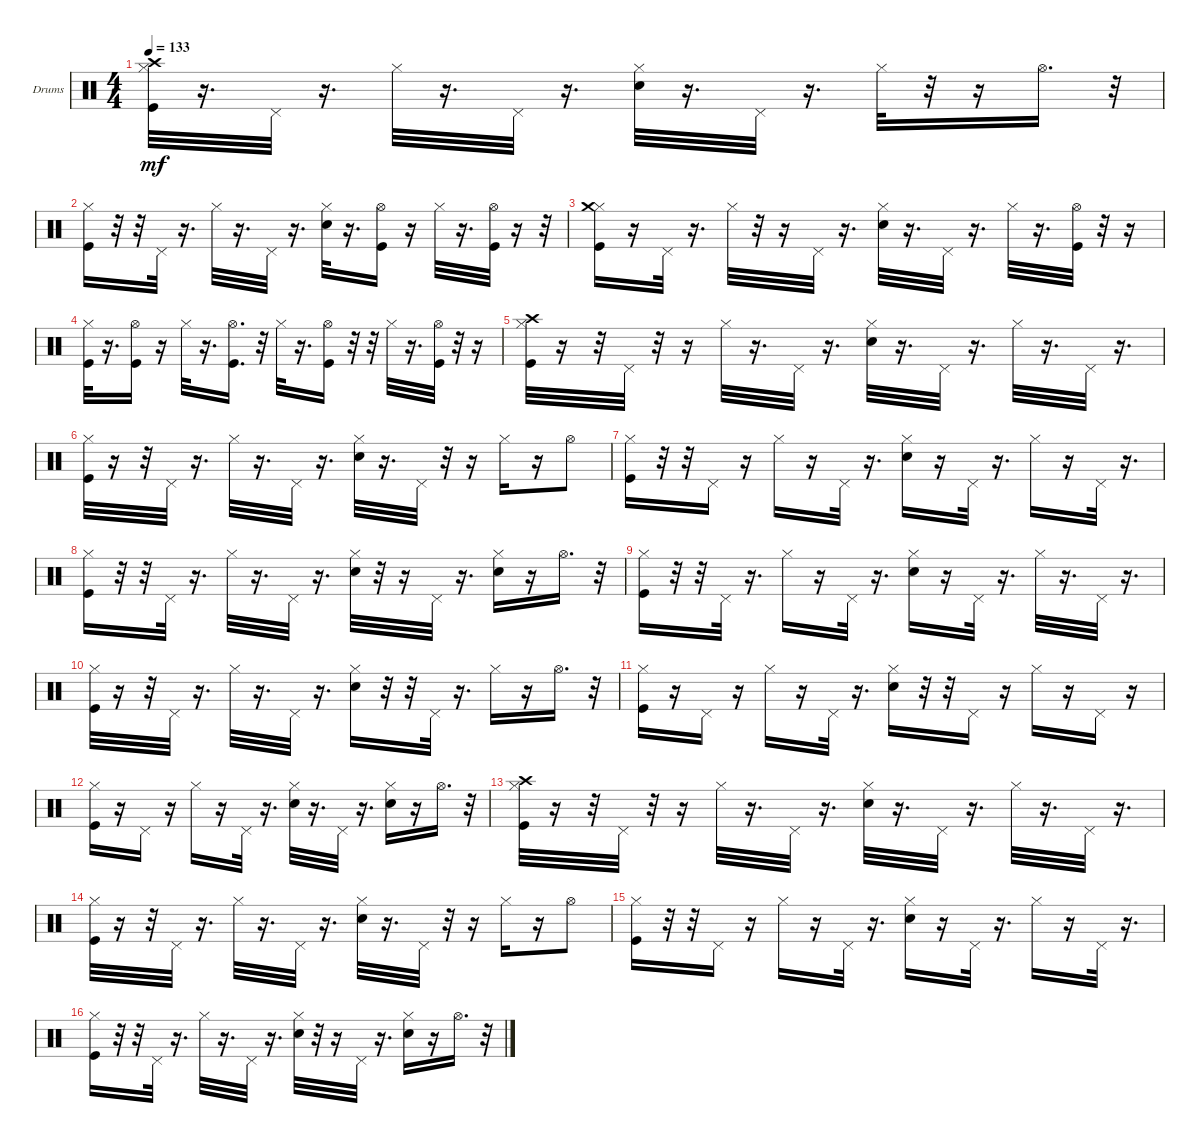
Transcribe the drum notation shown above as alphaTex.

\defaultSystemsLayout 4
\bracketExtendMode groupsimilarinstruments
\firstSystemTrackNameOrientation horizontal
\otherSystemsTrackNameOrientation horizontal
\track ("Drumkit" "Drums") {instrument percussion}
\staff {score}
\articulation defaults
\ts (4 4)
\tempo 133
\clef neutral
\ks c
("Kick (hit)" "Hi-Hat (closed)" "Crash high (hit)").32{dy mf} r.16{d} "Pedal Hi-Hat (hit)".32 r.16{d} "Hi-Hat (closed)".32 r.16{d} "Pedal Hi-Hat (hit)".32 r.16{d} ("Snare (hit) 2" "Hi-Hat (closed)").32 r.16{d} "Pedal Hi-Hat (hit)".32 r.16{d} "Hi-Hat (closed)".32 r.32 r.16 "Hi-Hat (open)".16{d} r.32 |
("Kick (hit)" "Hi-Hat (closed)").16 r.32 r.32 "Pedal Hi-Hat (hit)".32 r.16{d} "Hi-Hat (closed)".32 r.16{d} "Pedal Hi-Hat (hit)".32 r.16{d} ("Snare (hit) 2" "Hi-Hat (closed)").32 r.16{d} ("Kick (hit)" "Hi-Hat (open)").16 r.16 "Hi-Hat (closed)".32 r.16{d} ("Kick (hit)" "Hi-Hat (open)").32 r.16 r.32 |
("Kick (hit)" "Hi-Hat (closed)" "Crash medium (hit)").16 r.16 "Pedal Hi-Hat (hit)".32 r.16{d} "Hi-Hat (closed)".32 r.32 r.16 "Pedal Hi-Hat (hit)".32 r.16{d} ("Snare (hit) 2" "Hi-Hat (closed)").32 r.16{d} "Pedal Hi-Hat (hit)".32 r.16{d} "Hi-Hat (closed)".32 r.16{d} ("Kick (hit)" "Hi-Hat (open)").32 r.32 r.16 |
("Kick (hit)" "Hi-Hat (closed)").32 r.16{d} ("Kick (hit)" "Hi-Hat (open)").16 r.16 "Hi-Hat (closed)".32 r.16{d} ("Kick (hit)" "Hi-Hat (open)").16{d} r.32 "Hi-Hat (closed)".32 r.16{d} ("Kick (hit)" "Hi-Hat (open)").16 r.32 r.32 "Hi-Hat (closed)".32 r.16{d} ("Kick (hit)" "Hi-Hat (open)").32 r.32 r.16 |
("Kick (hit)" "Hi-Hat (closed)" "Crash high (hit)").32 r.16 r.32 "Pedal Hi-Hat (hit)".32 r.32 r.16 "Hi-Hat (closed)".32 r.16{d} "Pedal Hi-Hat (hit)".32 r.16{d} ("Snare (hit) 2" "Hi-Hat (closed)").32 r.16{d} "Pedal Hi-Hat (hit)".32 r.16{d} "Hi-Hat (closed)".32 r.16{d} "Pedal Hi-Hat (hit)".32 r.16{d} |
("Kick (hit)" "Hi-Hat (closed)").32 r.16 r.32 "Pedal Hi-Hat (hit)".32 r.16{d} "Hi-Hat (closed)".32 r.16{d} "Pedal Hi-Hat (hit)".32 r.16{d} ("Snare (hit) 2" "Hi-Hat (closed)").32 r.16{d} "Pedal Hi-Hat (hit)".32 r.32 r.16 "Hi-Hat (closed)".16 r.16 "Hi-Hat (open)".8 |
("Kick (hit)" "Hi-Hat (closed)").16 r.32 r.32 "Pedal Hi-Hat (hit)".16 r.16 "Hi-Hat (closed)".16 r.16 "Pedal Hi-Hat (hit)".32 r.16{d} ("Snare (hit) 2" "Hi-Hat (closed)").16 r.16 "Pedal Hi-Hat (hit)".32 r.16{d} "Hi-Hat (closed)".16 r.16 "Pedal Hi-Hat (hit)".32 r.16{d} |
("Kick (hit)" "Hi-Hat (closed)").16 r.32 r.32 "Pedal Hi-Hat (hit)".32 r.16{d} "Hi-Hat (closed)".32 r.16{d} "Pedal Hi-Hat (hit)".32 r.16{d} ("Snare (hit) 2" "Hi-Hat (closed)").32 r.32 r.16 "Pedal Hi-Hat (hit)".32 r.16{d} ("Snare (hit) 2" "Hi-Hat (closed)").16 r.16 "Hi-Hat (open)".16{d} r.32 |
("Kick (hit)" "Hi-Hat (closed)").16 r.32 r.32 "Pedal Hi-Hat (hit)".32 r.16{d} "Hi-Hat (closed)".16 r.16 "Pedal Hi-Hat (hit)".32 r.16{d} ("Snare (hit) 2" "Hi-Hat (closed)").16 r.16 "Pedal Hi-Hat (hit)".32 r.16{d} "Hi-Hat (closed)".32 r.16{d} "Pedal Hi-Hat (hit)".32 r.16{d} |
("Kick (hit)" "Hi-Hat (closed)").32 r.16 r.32 "Pedal Hi-Hat (hit)".32 r.16{d} "Hi-Hat (closed)".32 r.16{d} "Pedal Hi-Hat (hit)".32 r.16{d} ("Snare (hit) 2" "Hi-Hat (closed)").16 r.32 r.32 "Pedal Hi-Hat (hit)".32 r.16{d} "Hi-Hat (closed)".16 r.16 "Hi-Hat (open)".16{d} r.32 |
("Kick (hit)" "Hi-Hat (closed)").16 r.16 "Pedal Hi-Hat (hit)".16 r.16 "Hi-Hat (closed)".16 r.16 "Pedal Hi-Hat (hit)".32 r.16{d} ("Snare (hit) 2" "Hi-Hat (closed)").16 r.32 r.32 "Pedal Hi-Hat (hit)".16 r.16 "Hi-Hat (closed)".16 r.16 "Pedal Hi-Hat (hit)".16 r.16 |
("Kick (hit)" "Hi-Hat (closed)").16 r.16 "Pedal Hi-Hat (hit)".16 r.16 "Hi-Hat (closed)".16 r.16 "Pedal Hi-Hat (hit)".32 r.16{d} ("Snare (hit) 2" "Hi-Hat (closed)").32 r.16{d} "Pedal Hi-Hat (hit)".32 r.16{d} ("Snare (hit) 2" "Hi-Hat (closed)").16 r.16 "Hi-Hat (open)".16{d} r.32 |
("Kick (hit)" "Hi-Hat (closed)" "Crash high (hit)").32 r.16 r.32 "Pedal Hi-Hat (hit)".32 r.32 r.16 "Hi-Hat (closed)".32 r.16{d} "Pedal Hi-Hat (hit)".32 r.16{d} ("Snare (hit) 2" "Hi-Hat (closed)").32 r.16{d} "Pedal Hi-Hat (hit)".32 r.16{d} "Hi-Hat (closed)".32 r.16{d} "Pedal Hi-Hat (hit)".32 r.16{d} |
("Kick (hit)" "Hi-Hat (closed)").32 r.16 r.32 "Pedal Hi-Hat (hit)".32 r.16{d} "Hi-Hat (closed)".32 r.16{d} "Pedal Hi-Hat (hit)".32 r.16{d} ("Snare (hit) 2" "Hi-Hat (closed)").32 r.16{d} "Pedal Hi-Hat (hit)".32 r.32 r.16 "Hi-Hat (closed)".16 r.16 "Hi-Hat (open)".8 |
("Kick (hit)" "Hi-Hat (closed)").16 r.32 r.32 "Pedal Hi-Hat (hit)".16 r.16 "Hi-Hat (closed)".16 r.16 "Pedal Hi-Hat (hit)".32 r.16{d} ("Snare (hit) 2" "Hi-Hat (closed)").16 r.16 "Pedal Hi-Hat (hit)".32 r.16{d} "Hi-Hat (closed)".16 r.16 "Pedal Hi-Hat (hit)".32 r.16{d} |
("Kick (hit)" "Hi-Hat (closed)").16 r.32 r.32 "Pedal Hi-Hat (hit)".32 r.16{d} "Hi-Hat (closed)".32 r.16{d} "Pedal Hi-Hat (hit)".32 r.16{d} ("Snare (hit) 2" "Hi-Hat (closed)").32 r.32 r.16 "Pedal Hi-Hat (hit)".32 r.16{d} ("Snare (hit) 2" "Hi-Hat (closed)").16 r.16 "Hi-Hat (open)".16{d} r.32
